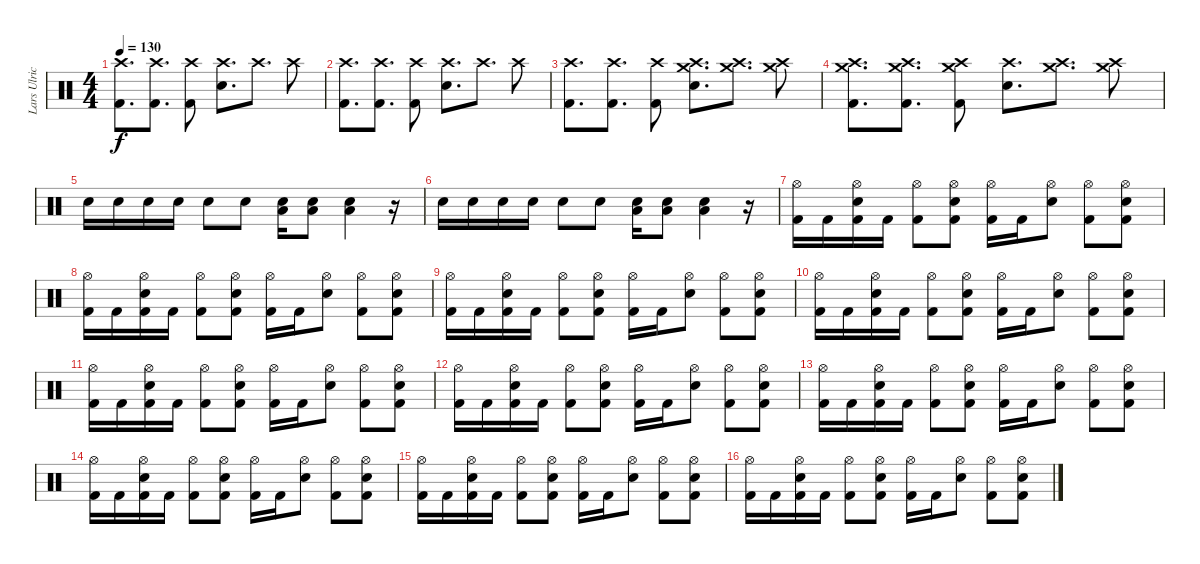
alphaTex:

\track ("Lars Ulrich" "Lars Ulric") {instrument percussion}
\staff {score}
\articulation defaults
\ts (4 4)
\tempo 130
\clef neutral
\ks c
("Crash high (hit)" "Kick (hit) 2").8{d dy f} ("Crash high (hit)" "Kick (hit) 2").8{d} ("Crash high (hit)" "Kick (hit) 2").8 ("Crash high (hit)" "Electric Snare (hit)").8{d} "Crash high (hit)".8{d} "Crash high (hit)".8 |
("Crash high (hit)" "Kick (hit) 2").8{d} ("Crash high (hit)" "Kick (hit) 2").8{d} ("Crash high (hit)" "Kick (hit) 2").8 ("Crash high (hit)" "Electric Snare (hit)").8{d} "Crash high (hit)".8{d} "Crash high (hit)".8 |
("Crash high (hit)" "Kick (hit) 2").8{d} ("Crash high (hit)" "Kick (hit) 2").8{d} ("Crash high (hit)" "Kick (hit) 2").8 ("Crash medium (hit)" "Crash high (hit)" "Electric Snare (hit)").8{d} ("Crash medium (hit)" "Crash high (hit)").8{d} ("Crash medium (hit)" "Crash high (hit)").8 |
("Crash medium (hit)" "Crash high (hit)" "Kick (hit) 2").8{d} ("Crash medium (hit)" "Crash high (hit)" "Kick (hit) 2").8{d} ("Crash medium (hit)" "Crash high (hit)" "Kick (hit) 2").8 ("Crash high (hit)" "Electric Snare (hit)").8{d} ("Crash medium (hit)" "Crash high (hit)").8{d} ("Crash medium (hit)" "Crash high (hit)").8 |
"Electric Snare (hit)".16 "Electric Snare (hit)".16 "Electric Snare (hit)".16 "Electric Snare (hit)".16 "Electric Snare (hit)".8 "Electric Snare (hit)".8 ("Electric Snare (hit)" "Low Floor Tom (hit)").16 ("Electric Snare (hit)" "Low Floor Tom (hit)").8 ("Electric Snare (hit)" "Low Floor Tom (hit)").4 r.16 |
"Electric Snare (hit)".16 "Electric Snare (hit)".16 "Electric Snare (hit)".16 "Electric Snare (hit)".16 "Electric Snare (hit)".8 "Electric Snare (hit)".8 ("Electric Snare (hit)" "Low Floor Tom (hit)").16 ("Electric Snare (hit)" "Low Floor Tom (hit)").8 ("Electric Snare (hit)" "Low Floor Tom (hit)").4 r.16 |
("Hi-Hat (open)" "Kick (hit) 2").16 "Kick (hit) 2".16 ("Hi-Hat (open)" "Electric Snare (hit)" "Kick (hit) 2").16 "Kick (hit) 2".16 ("Hi-Hat (open)" "Kick (hit) 2").8 ("Hi-Hat (open)" "Electric Snare (hit)" "Kick (hit) 2").8 ("Hi-Hat (open)" "Kick (hit) 2").16 "Kick (hit) 2".16 ("Hi-Hat (open)" "Electric Snare (hit)").8 ("Hi-Hat (open)" "Kick (hit) 2").8 ("Hi-Hat (open)" "Electric Snare (hit)" "Kick (hit) 2").8 |
("Hi-Hat (open)" "Kick (hit) 2").16 "Kick (hit) 2".16 ("Hi-Hat (open)" "Electric Snare (hit)" "Kick (hit) 2").16 "Kick (hit) 2".16 ("Hi-Hat (open)" "Kick (hit) 2").8 ("Hi-Hat (open)" "Electric Snare (hit)" "Kick (hit) 2").8 ("Hi-Hat (open)" "Kick (hit) 2").16 "Kick (hit) 2".16 ("Hi-Hat (open)" "Electric Snare (hit)").8 ("Hi-Hat (open)" "Kick (hit) 2").8 ("Hi-Hat (open)" "Electric Snare (hit)" "Kick (hit) 2").8 |
("Hi-Hat (open)" "Kick (hit) 2").16 "Kick (hit) 2".16 ("Hi-Hat (open)" "Electric Snare (hit)" "Kick (hit) 2").16 "Kick (hit) 2".16 ("Hi-Hat (open)" "Kick (hit) 2").8 ("Hi-Hat (open)" "Electric Snare (hit)" "Kick (hit) 2").8 ("Hi-Hat (open)" "Kick (hit) 2").16 "Kick (hit) 2".16 ("Hi-Hat (open)" "Electric Snare (hit)").8 ("Hi-Hat (open)" "Kick (hit) 2").8 ("Hi-Hat (open)" "Electric Snare (hit)" "Kick (hit) 2").8 |
("Hi-Hat (open)" "Kick (hit) 2").16 "Kick (hit) 2".16 ("Hi-Hat (open)" "Electric Snare (hit)" "Kick (hit) 2").16 "Kick (hit) 2".16 ("Hi-Hat (open)" "Kick (hit) 2").8 ("Hi-Hat (open)" "Electric Snare (hit)" "Kick (hit) 2").8 ("Hi-Hat (open)" "Kick (hit) 2").16 "Kick (hit) 2".16 ("Hi-Hat (open)" "Electric Snare (hit)").8 ("Hi-Hat (open)" "Kick (hit) 2").8 ("Hi-Hat (open)" "Electric Snare (hit)" "Kick (hit) 2").8 |
("Hi-Hat (open)" "Kick (hit) 2").16 "Kick (hit) 2".16 ("Hi-Hat (open)" "Electric Snare (hit)" "Kick (hit) 2").16 "Kick (hit) 2".16 ("Hi-Hat (open)" "Kick (hit) 2").8 ("Hi-Hat (open)" "Electric Snare (hit)" "Kick (hit) 2").8 ("Hi-Hat (open)" "Kick (hit) 2").16 "Kick (hit) 2".16 ("Hi-Hat (open)" "Electric Snare (hit)").8 ("Hi-Hat (open)" "Kick (hit) 2").8 ("Hi-Hat (open)" "Electric Snare (hit)" "Kick (hit) 2").8 |
("Hi-Hat (open)" "Kick (hit) 2").16 "Kick (hit) 2".16 ("Hi-Hat (open)" "Electric Snare (hit)" "Kick (hit) 2").16 "Kick (hit) 2".16 ("Hi-Hat (open)" "Kick (hit) 2").8 ("Hi-Hat (open)" "Electric Snare (hit)" "Kick (hit) 2").8 ("Hi-Hat (open)" "Kick (hit) 2").16 "Kick (hit) 2".16 ("Hi-Hat (open)" "Electric Snare (hit)").8 ("Hi-Hat (open)" "Kick (hit) 2").8 ("Hi-Hat (open)" "Electric Snare (hit)" "Kick (hit) 2").8 |
("Hi-Hat (open)" "Kick (hit) 2").16 "Kick (hit) 2".16 ("Hi-Hat (open)" "Electric Snare (hit)" "Kick (hit) 2").16 "Kick (hit) 2".16 ("Hi-Hat (open)" "Kick (hit) 2").8 ("Hi-Hat (open)" "Electric Snare (hit)" "Kick (hit) 2").8 ("Hi-Hat (open)" "Kick (hit) 2").16 "Kick (hit) 2".16 ("Hi-Hat (open)" "Electric Snare (hit)").8 ("Hi-Hat (open)" "Kick (hit) 2").8 ("Hi-Hat (open)" "Electric Snare (hit)" "Kick (hit) 2").8 |
("Hi-Hat (open)" "Kick (hit) 2").16 "Kick (hit) 2".16 ("Hi-Hat (open)" "Electric Snare (hit)" "Kick (hit) 2").16 "Kick (hit) 2".16 ("Hi-Hat (open)" "Kick (hit) 2").8 ("Hi-Hat (open)" "Electric Snare (hit)" "Kick (hit) 2").8 ("Hi-Hat (open)" "Kick (hit) 2").16 "Kick (hit) 2".16 ("Hi-Hat (open)" "Electric Snare (hit)").8 ("Hi-Hat (open)" "Kick (hit) 2").8 ("Hi-Hat (open)" "Electric Snare (hit)" "Kick (hit) 2").8 |
("Hi-Hat (open)" "Kick (hit) 2").16 "Kick (hit) 2".16 ("Hi-Hat (open)" "Electric Snare (hit)" "Kick (hit) 2").16 "Kick (hit) 2".16 ("Hi-Hat (open)" "Kick (hit) 2").8 ("Hi-Hat (open)" "Electric Snare (hit)" "Kick (hit) 2").8 ("Hi-Hat (open)" "Kick (hit) 2").16 "Kick (hit) 2".16 ("Hi-Hat (open)" "Electric Snare (hit)").8 ("Hi-Hat (open)" "Kick (hit) 2").8 ("Hi-Hat (open)" "Electric Snare (hit)" "Kick (hit) 2").8 |
("Hi-Hat (open)" "Kick (hit) 2").16 "Kick (hit) 2".16 ("Hi-Hat (open)" "Electric Snare (hit)" "Kick (hit) 2").16 "Kick (hit) 2".16 ("Hi-Hat (open)" "Kick (hit) 2").8 ("Hi-Hat (open)" "Electric Snare (hit)" "Kick (hit) 2").8 ("Hi-Hat (open)" "Kick (hit) 2").16 "Kick (hit) 2".16 ("Hi-Hat (open)" "Electric Snare (hit)").8 ("Hi-Hat (open)" "Kick (hit) 2").8 ("Hi-Hat (open)" "Electric Snare (hit)" "Kick (hit) 2").8
